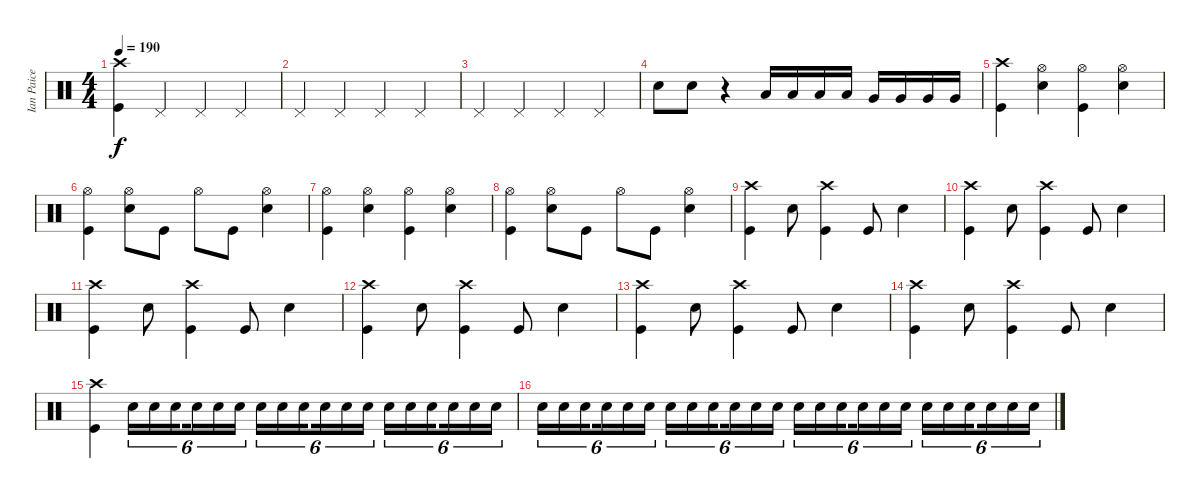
\track ("Ian Paice" "Ian Paice") {instrument percussion}
\staff {score}
\articulation defaults
\ts (4 4)
\tempo 190
\clef neutral
\ks c
("Kick (hit)" "Crash high (hit)").4{dy f} "Pedal Hi-Hat (hit)".4 "Pedal Hi-Hat (hit)".4 "Pedal Hi-Hat (hit)".4 |
"Pedal Hi-Hat (hit)".4 "Pedal Hi-Hat (hit)".4 "Pedal Hi-Hat (hit)".4 "Pedal Hi-Hat (hit)".4 |
"Pedal Hi-Hat (hit)".4 "Pedal Hi-Hat (hit)".4 "Pedal Hi-Hat (hit)".4 "Pedal Hi-Hat (hit)".4 |
"Snare (hit) 2".8 "Snare (hit) 2".8 r.4 "Low Tom (hit)".16 "Low Tom (hit)".16 "Low Tom (hit)".16 "Low Tom (hit)".16 "Very Low Tom (hit)".16 "Very Low Tom (hit)".16 "Very Low Tom (hit)".16 "Very Low Tom (hit)".16 |
("Crash high (hit)" "Kick (hit)").4 ("Hi-Hat (open)" "Snare (hit) 2").4 ("Hi-Hat (open)" "Kick (hit)").4 ("Hi-Hat (open)" "Snare (hit) 2").4 |
("Hi-Hat (open)" "Kick (hit)").4 ("Hi-Hat (open)" "Snare (hit) 2").8 "Kick (hit)".8 "Hi-Hat (open)".8 "Kick (hit)".8 ("Snare (hit) 2" "Hi-Hat (open)").4 |
("Kick (hit)" "Hi-Hat (open)").4 ("Hi-Hat (open)" "Snare (hit) 2").4 ("Hi-Hat (open)" "Kick (hit)").4 ("Snare (hit) 2" "Hi-Hat (open)").4 |
("Hi-Hat (open)" "Kick (hit)").4 ("Snare (hit) 2" "Hi-Hat (open)").8 "Kick (hit)".8 "Hi-Hat (open)".8 "Kick (hit)".8 ("Snare (hit) 2" "Hi-Hat (open)").4 |
("Kick (hit)" "Crash high (hit)").4 "Snare (hit) 2".8 ("Crash high (hit)" "Kick (hit)").4 "Kick (hit)".8 "Snare (hit) 2".4 |
("Kick (hit)" "Crash high (hit)").4 "Snare (hit) 2".8 ("Crash high (hit)" "Kick (hit)").4 "Kick (hit)".8 "Snare (hit) 2".4 |
("Kick (hit)" "Crash high (hit)").4 "Snare (hit) 2".8 ("Crash high (hit)" "Kick (hit)").4 "Kick (hit)".8 "Snare (hit) 2".4 |
("Kick (hit)" "Crash high (hit)").4 "Snare (hit) 2".8 ("Crash high (hit)" "Kick (hit)").4 "Kick (hit)".8 "Snare (hit) 2".4 |
("Kick (hit)" "Crash high (hit)").4 "Snare (hit) 2".8 ("Crash high (hit)" "Kick (hit)").4 "Kick (hit)".8 "Snare (hit) 2".4 |
("Kick (hit)" "Crash high (hit)").4 "Snare (hit) 2".8 ("Crash high (hit)" "Kick (hit)").4 "Kick (hit)".8 "Snare (hit) 2".4 |
("Crash high (hit)" "Kick (hit)").4 "Snare (hit) 2".16{tu (6 4)} "Snare (hit) 2".16{tu (6 4)} "Snare (hit) 2".16{tu (6 4) beam splitsecondary} "Snare (hit) 2".16{tu (6 4)} "Snare (hit) 2".16{tu (6 4)} "Snare (hit) 2".16{tu (6 4)} "Snare (hit) 2".16{tu (6 4)} "Snare (hit) 2".16{tu (6 4)} "Snare (hit) 2".16{tu (6 4) beam splitsecondary} "Snare (hit) 2".16{tu (6 4)} "Snare (hit) 2".16{tu (6 4)} "Snare (hit) 2".16{tu (6 4)} "Snare (hit) 2".16{tu (6 4)} "Snare (hit) 2".16{tu (6 4)} "Snare (hit) 2".16{tu (6 4) beam splitsecondary} "Snare (hit) 2".16{tu (6 4)} "Snare (hit) 2".16{tu (6 4)} "Snare (hit) 2".16{tu (6 4)} |
"Snare (hit) 2".16{tu (6 4)} "Snare (hit) 2".16{tu (6 4)} "Snare (hit) 2".16{tu (6 4) beam splitsecondary} "Snare (hit) 2".16{tu (6 4)} "Snare (hit) 2".16{tu (6 4)} "Snare (hit) 2".16{tu (6 4)} "Snare (hit) 2".16{tu (6 4)} "Snare (hit) 2".16{tu (6 4)} "Snare (hit) 2".16{tu (6 4) beam splitsecondary} "Snare (hit) 2".16{tu (6 4)} "Snare (hit) 2".16{tu (6 4)} "Snare (hit) 2".16{tu (6 4)} "Snare (hit) 2".16{tu (6 4)} "Snare (hit) 2".16{tu (6 4)} "Snare (hit) 2".16{tu (6 4) beam splitsecondary} "Snare (hit) 2".16{tu (6 4)} "Snare (hit) 2".16{tu (6 4)} "Snare (hit) 2".16{tu (6 4)} "Snare (hit) 2".16{tu (6 4)} "Snare (hit) 2".16{tu (6 4)} "Snare (hit) 2".16{tu (6 4) beam splitsecondary} "Snare (hit) 2".16{tu (6 4)} "Snare (hit) 2".16{tu (6 4)} "Snare (hit) 2".16{tu (6 4)}
